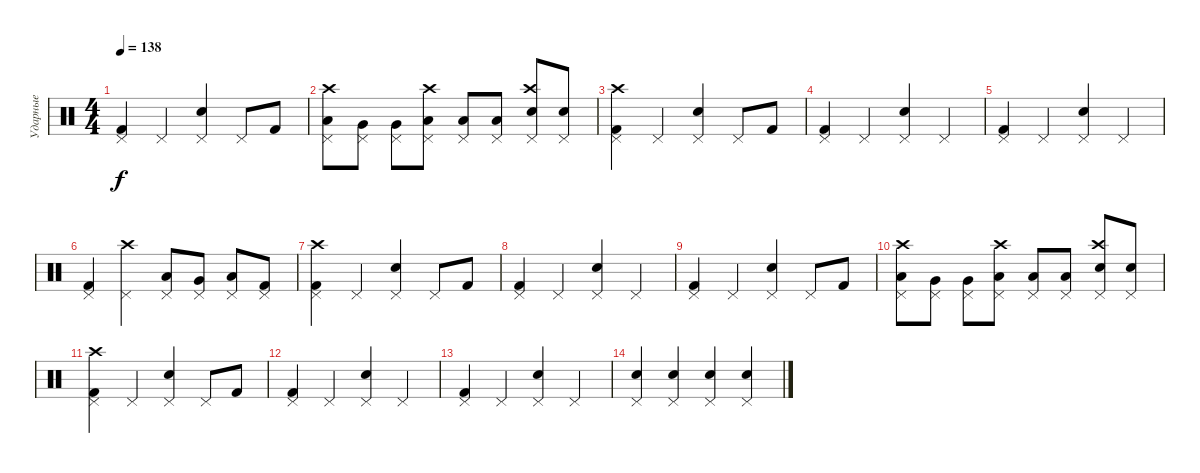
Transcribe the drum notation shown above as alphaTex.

\track ("Ударные" "Ударные") {instrument percussion}
\staff {score}
\articulation defaults
\ts (4 4)
\tempo 138
\clef neutral
\ks c
("Kick (hit) 2" "Pedal Hi-Hat (hit)").4{dy f} "Pedal Hi-Hat (hit)".4 ("Electric Snare (hit)" "Pedal Hi-Hat (hit)").4 "Pedal Hi-Hat (hit)".8 "Kick (hit) 2".8 |
("Pedal Hi-Hat (hit)" "Low Tom (hit)" "Crash high (hit)").8 ("Pedal Hi-Hat (hit)" "Very Low Tom (hit)").8 ("Pedal Hi-Hat (hit)" "Very Low Tom (hit)").8 ("Pedal Hi-Hat (hit)" "Low Tom (hit)" "Crash high (hit)").8 ("Pedal Hi-Hat (hit)" "Low Floor Tom (hit)").8 ("Pedal Hi-Hat (hit)" "Low Floor Tom (hit)").8 ("Pedal Hi-Hat (hit)" "Snare (hit) 2" "Crash high (hit)").8 ("Pedal Hi-Hat (hit)" "Snare (hit) 2").8 |
("Kick (hit) 2" "Pedal Hi-Hat (hit)" "Crash high (hit)").4 "Pedal Hi-Hat (hit)".4 ("Electric Snare (hit)" "Pedal Hi-Hat (hit)").4 "Pedal Hi-Hat (hit)".8 "Kick (hit) 2".8 |
("Kick (hit) 2" "Pedal Hi-Hat (hit)").4 "Pedal Hi-Hat (hit)".4 ("Electric Snare (hit)" "Pedal Hi-Hat (hit)").4 "Pedal Hi-Hat (hit)".4 |
("Kick (hit) 2" "Pedal Hi-Hat (hit)").4 "Pedal Hi-Hat (hit)".4 ("Electric Snare (hit)" "Pedal Hi-Hat (hit)").4 "Pedal Hi-Hat (hit)".4 |
("Kick (hit) 2" "Pedal Hi-Hat (hit)").4 ("Pedal Hi-Hat (hit)" "Crash high (hit)").4 ("Pedal Hi-Hat (hit)" "Low Floor Tom (hit)").8 ("Pedal Hi-Hat (hit)" "Very Low Tom (hit)").8 ("Pedal Hi-Hat (hit)" "Low Tom (hit)").8 ("Pedal Hi-Hat (hit)" "Kick (hit) 2").8 |
("Kick (hit) 2" "Pedal Hi-Hat (hit)" "Crash high (hit)").4 "Pedal Hi-Hat (hit)".4 ("Electric Snare (hit)" "Pedal Hi-Hat (hit)").4 "Pedal Hi-Hat (hit)".8 "Kick (hit) 2".8 |
("Kick (hit) 2" "Pedal Hi-Hat (hit)").4 "Pedal Hi-Hat (hit)".4 ("Electric Snare (hit)" "Pedal Hi-Hat (hit)").4 "Pedal Hi-Hat (hit)".4 |
("Kick (hit) 2" "Pedal Hi-Hat (hit)").4 "Pedal Hi-Hat (hit)".4 ("Electric Snare (hit)" "Pedal Hi-Hat (hit)").4 "Pedal Hi-Hat (hit)".8 "Kick (hit) 2".8 |
("Pedal Hi-Hat (hit)" "Low Tom (hit)" "Crash high (hit)").8 ("Pedal Hi-Hat (hit)" "Very Low Tom (hit)").8 ("Pedal Hi-Hat (hit)" "Very Low Tom (hit)").8 ("Pedal Hi-Hat (hit)" "Low Tom (hit)" "Crash high (hit)").8 ("Pedal Hi-Hat (hit)" "Low Floor Tom (hit)").8 ("Pedal Hi-Hat (hit)" "Low Floor Tom (hit)").8 ("Pedal Hi-Hat (hit)" "Snare (hit) 2" "Crash high (hit)").8 ("Pedal Hi-Hat (hit)" "Snare (hit) 2").8 |
("Kick (hit) 2" "Pedal Hi-Hat (hit)" "Crash high (hit)").4 "Pedal Hi-Hat (hit)".4 ("Electric Snare (hit)" "Pedal Hi-Hat (hit)").4 "Pedal Hi-Hat (hit)".8 "Kick (hit) 2".8 |
("Kick (hit) 2" "Pedal Hi-Hat (hit)").4 "Pedal Hi-Hat (hit)".4 ("Electric Snare (hit)" "Pedal Hi-Hat (hit)").4 "Pedal Hi-Hat (hit)".4 |
("Kick (hit) 2" "Pedal Hi-Hat (hit)").4 "Pedal Hi-Hat (hit)".4 ("Electric Snare (hit)" "Pedal Hi-Hat (hit)").4 "Pedal Hi-Hat (hit)".4 |
("Pedal Hi-Hat (hit)" "Snare (hit) 2").4 ("Pedal Hi-Hat (hit)" "Snare (hit) 2").4 ("Pedal Hi-Hat (hit)" "Snare (hit) 2").4 ("Pedal Hi-Hat (hit)" "Snare (hit) 2").4
